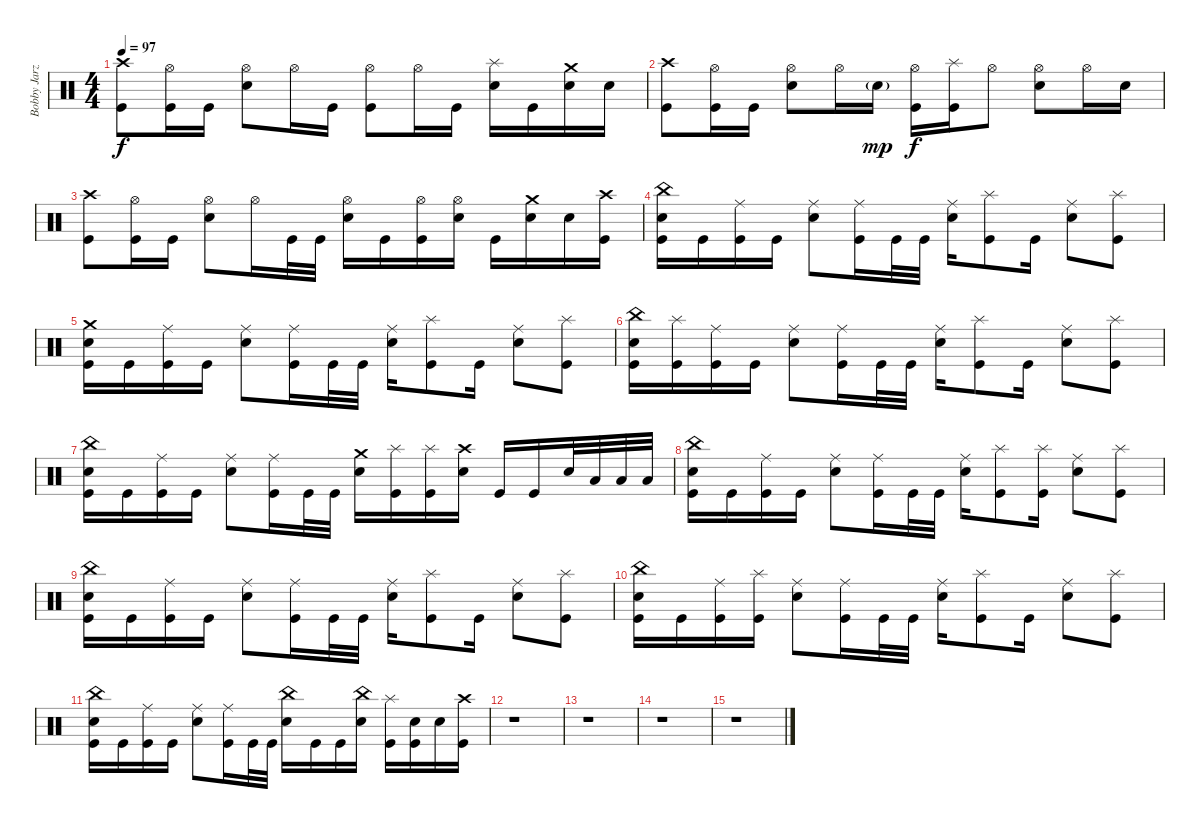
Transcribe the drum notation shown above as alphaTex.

\track ("Bobby Jarzombek" "Bobby Jarz") {instrument percussion}
\staff {score}
\articulation defaults
\ts (4 4)
\tempo 97
\clef neutral
\ks c
("Crash high (hit)" "Kick (hit)").8{dy f} ("Hi-Hat (open)" "Kick (hit)").16 "Kick (hit)".16 ("Hi-Hat (open)" "Electric Snare (hit)").8 "Hi-Hat (open)".16 "Kick (hit)".16 ("Hi-Hat (open)" "Kick (hit)").8 "Hi-Hat (open)".16 "Kick (hit)".16 ("Splash (hit)" "Electric Snare (hit)").16 "Kick (hit)".16 ("Crash medium (hit)" "Electric Snare (hit)").16 "Electric Snare (hit)".16 |
("Crash high (hit)" "Kick (hit)").8 ("Hi-Hat (open)" "Kick (hit)").16 "Kick (hit)".16 ("Hi-Hat (open)" "Electric Snare (hit)").8 "Hi-Hat (open)".16 "Electric Snare (hit)"{g}.16{dy mp} ("Hi-Hat (open)" "Kick (hit)").16{dy f} ("Splash (hit)" "Kick (hit)").16 "Hi-Hat (open)".8 ("Hi-Hat (open)" "Electric Snare (hit)").8 "Hi-Hat (open)".16 "Electric Snare (hit)".16 |
("Crash high (hit)" "Kick (hit)").8 ("Hi-Hat (open)" "Kick (hit)").16 "Kick (hit)".16 ("Hi-Hat (open)" "Electric Snare (hit)").8 "Hi-Hat (open)".16 "Kick (hit)".32 "Kick (hit)".32 ("Hi-Hat (open)" "Electric Snare (hit)").16 "Kick (hit)".16 ("Hi-Hat (open)" "Kick (hit)").16 ("Hi-Hat (open)" "Electric Snare (hit)").16 "Kick (hit)".16 ("Crash medium (hit)" "Electric Snare (hit)").16 "Electric Snare (hit)".16 ("Crash high (hit)" "Kick (hit)").16 |
("China (hit)" "Electric Snare (hit)" "Kick (hit)").16 "Kick (hit)".16 ("Ride (middle)" "Kick (hit)").16 "Kick (hit)".16 ("Ride (middle)" "Electric Snare (hit)").8 ("Ride (middle)" "Kick (hit)").16 "Kick (hit)".32 "Kick (hit)".32 ("Ride (middle)" "Electric Snare (hit)").16 ("Splash (hit)" "Kick (hit)").8 "Kick (hit)".16 ("Ride (middle)" "Electric Snare (hit)").8 ("Splash (hit)" "Kick (hit)").8 |
("Crash medium (hit)" "Electric Snare (hit)" "Kick (hit)").16 "Kick (hit)".16 ("Ride (middle)" "Kick (hit)").16 "Kick (hit)".16 ("Ride (middle)" "Electric Snare (hit)").8 ("Ride (middle)" "Kick (hit)").16 "Kick (hit)".32 "Kick (hit)".32 ("Ride (middle)" "Electric Snare (hit)").16 ("Splash (hit)" "Kick (hit)").8 "Kick (hit)".16 ("Ride (middle)" "Electric Snare (hit)").8 ("Splash (hit)" "Kick (hit)").8 |
("China (hit)" "Electric Snare (hit)" "Kick (hit)").16 ("Splash (hit)" "Kick (hit)").16 ("Ride (middle)" "Kick (hit)").16 "Kick (hit)".16 ("Ride (middle)" "Electric Snare (hit)").8 ("Ride (middle)" "Kick (hit)").16 "Kick (hit)".32 "Kick (hit)".32 ("Ride (middle)" "Electric Snare (hit)").16 ("Splash (hit)" "Kick (hit)").8 "Kick (hit)".16 ("Ride (middle)" "Electric Snare (hit)").8 ("Splash (hit)" "Kick (hit)").8 |
("China (hit)" "Electric Snare (hit)" "Kick (hit)").16 "Kick (hit)".16 ("Ride (middle)" "Kick (hit)").16 "Kick (hit)".16 ("Ride (middle)" "Electric Snare (hit)").8 ("Ride (middle)" "Kick (hit)").16 "Kick (hit)".32 "Kick (hit)".32 ("Crash medium (hit)" "Electric Snare (hit)").16 ("Splash (hit)" "Kick (hit)").16 ("Splash (hit)" "Kick (hit)").16 ("Crash high (hit)" "Electric Snare (hit)").16 "Kick (hit)".16 "Kick (hit)".16 "Electric Snare (hit)".32 "Low Tom (hit)".32 "Low Tom (hit)".32 "Low Tom (hit)".32 |
("China (hit)" "Electric Snare (hit)" "Kick (hit)").16 "Kick (hit)".16 ("Ride (middle)" "Kick (hit)").16 "Kick (hit)".16 ("Ride (middle)" "Electric Snare (hit)").8 ("Ride (middle)" "Kick (hit)").16 "Kick (hit)".32 "Kick (hit)".32 ("Ride (middle)" "Electric Snare (hit)").16 ("Splash (hit)" "Kick (hit)").8 ("Splash (hit)" "Kick (hit)").16 ("Ride (middle)" "Electric Snare (hit)").8 ("Splash (hit)" "Kick (hit)").8 |
("China (hit)" "Electric Snare (hit)" "Kick (hit)").16 "Kick (hit)".16 ("Ride (middle)" "Kick (hit)").16 "Kick (hit)".16 ("Ride (middle)" "Electric Snare (hit)").8 ("Ride (middle)" "Kick (hit)").16 "Kick (hit)".32 "Kick (hit)".32 ("Ride (middle)" "Electric Snare (hit)").16 ("Splash (hit)" "Kick (hit)").8 "Kick (hit)".16 ("Ride (middle)" "Electric Snare (hit)").8 ("Splash (hit)" "Kick (hit)").8 |
("China (hit)" "Electric Snare (hit)" "Kick (hit)").16 "Kick (hit)".16 ("Ride (middle)" "Kick (hit)").16 ("Splash (hit)" "Kick (hit)").16 ("Ride (middle)" "Electric Snare (hit)").8 ("Ride (middle)" "Kick (hit)").16 "Kick (hit)".32 "Kick (hit)".32 ("Ride (middle)" "Electric Snare (hit)").16 ("Splash (hit)" "Kick (hit)").8 "Kick (hit)".16 ("Ride (middle)" "Electric Snare (hit)").8 ("Splash (hit)" "Kick (hit)").8 |
("China (hit)" "Electric Snare (hit)" "Kick (hit)").16 "Kick (hit)".16 ("Ride (middle)" "Kick (hit)").16 "Kick (hit)".16 ("Ride (middle)" "Electric Snare (hit)").8 ("Ride (middle)" "Kick (hit)").16 "Kick (hit)".32 "Kick (hit)".32 ("China (hit)" "Electric Snare (hit)").16 "Kick (hit)".16 "Kick (hit)".16 ("China (hit)" "Electric Snare (hit)").16 ("Splash (hit)" "Kick (hit)").16 ("Electric Snare (hit)" "Kick (hit)").16 "Electric Snare (hit)".16 ("Crash high (hit)" "Kick (hit)").16 |
r.1 |
r.1 |
r.1 |
r.1
